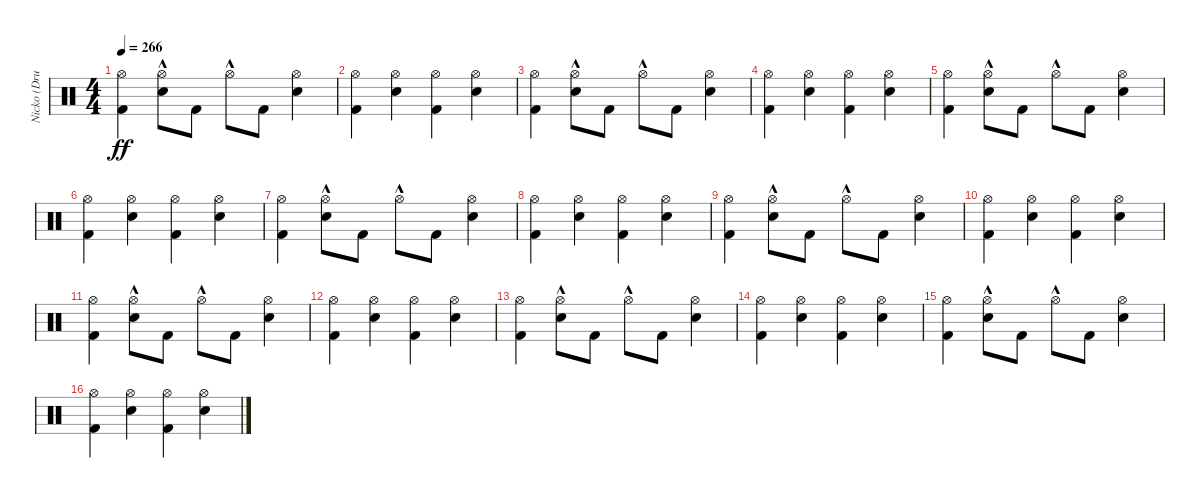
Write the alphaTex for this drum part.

\track ("Nicko (Drums)" "Nicko (Dru") {instrument percussion}
\staff {score}
\articulation defaults
\ts (4 4)
\tempo 266
\clef neutral
\ks c
("Kick (hit) 2" "Hi-Hat (open)").4{dy ff} ("Snare (hit) 2" "Hi-Hat (open)"{hac}).8 "Kick (hit) 2".8 "Hi-Hat (open)"{hac}.8 "Kick (hit) 2".8 ("Snare (hit) 2" "Hi-Hat (open)").4 |
("Kick (hit) 2" "Hi-Hat (open)").4 ("Snare (hit) 2" "Hi-Hat (open)").4 ("Kick (hit) 2" "Hi-Hat (open)").4 ("Snare (hit) 2" "Hi-Hat (open)").4 |
("Kick (hit) 2" "Hi-Hat (open)").4 ("Snare (hit) 2" "Hi-Hat (open)"{hac}).8 "Kick (hit) 2".8 "Hi-Hat (open)"{hac}.8 "Kick (hit) 2".8 ("Snare (hit) 2" "Hi-Hat (open)").4 |
("Kick (hit) 2" "Hi-Hat (open)").4 ("Snare (hit) 2" "Hi-Hat (open)").4 ("Kick (hit) 2" "Hi-Hat (open)").4 ("Snare (hit) 2" "Hi-Hat (open)").4 |
("Kick (hit) 2" "Hi-Hat (open)").4 ("Snare (hit) 2" "Hi-Hat (open)"{hac}).8 "Kick (hit) 2".8 "Hi-Hat (open)"{hac}.8 "Kick (hit) 2".8 ("Snare (hit) 2" "Hi-Hat (open)").4 |
("Kick (hit) 2" "Hi-Hat (open)").4 ("Snare (hit) 2" "Hi-Hat (open)").4 ("Kick (hit) 2" "Hi-Hat (open)").4 ("Snare (hit) 2" "Hi-Hat (open)").4 |
("Kick (hit) 2" "Hi-Hat (open)").4 ("Snare (hit) 2" "Hi-Hat (open)"{hac}).8 "Kick (hit) 2".8 "Hi-Hat (open)"{hac}.8 "Kick (hit) 2".8 ("Snare (hit) 2" "Hi-Hat (open)").4 |
("Kick (hit) 2" "Hi-Hat (open)").4 ("Snare (hit) 2" "Hi-Hat (open)").4 ("Kick (hit) 2" "Hi-Hat (open)").4 ("Snare (hit) 2" "Hi-Hat (open)").4 |
("Kick (hit) 2" "Hi-Hat (open)").4 ("Snare (hit) 2" "Hi-Hat (open)"{hac}).8 "Kick (hit) 2".8 "Hi-Hat (open)"{hac}.8 "Kick (hit) 2".8 ("Snare (hit) 2" "Hi-Hat (open)").4 |
("Kick (hit) 2" "Hi-Hat (open)").4 ("Snare (hit) 2" "Hi-Hat (open)").4 ("Kick (hit) 2" "Hi-Hat (open)").4 ("Snare (hit) 2" "Hi-Hat (open)").4 |
("Kick (hit) 2" "Hi-Hat (open)").4 ("Snare (hit) 2" "Hi-Hat (open)"{hac}).8 "Kick (hit) 2".8 "Hi-Hat (open)"{hac}.8 "Kick (hit) 2".8 ("Snare (hit) 2" "Hi-Hat (open)").4 |
("Kick (hit) 2" "Hi-Hat (open)").4 ("Snare (hit) 2" "Hi-Hat (open)").4 ("Kick (hit) 2" "Hi-Hat (open)").4 ("Snare (hit) 2" "Hi-Hat (open)").4 |
("Kick (hit) 2" "Hi-Hat (open)").4 ("Snare (hit) 2" "Hi-Hat (open)"{hac}).8 "Kick (hit) 2".8 "Hi-Hat (open)"{hac}.8 "Kick (hit) 2".8 ("Snare (hit) 2" "Hi-Hat (open)").4 |
("Kick (hit) 2" "Hi-Hat (open)").4 ("Snare (hit) 2" "Hi-Hat (open)").4 ("Kick (hit) 2" "Hi-Hat (open)").4 ("Snare (hit) 2" "Hi-Hat (open)").4 |
("Kick (hit) 2" "Hi-Hat (open)").4 ("Snare (hit) 2" "Hi-Hat (open)"{hac}).8 "Kick (hit) 2".8 "Hi-Hat (open)"{hac}.8 "Kick (hit) 2".8 ("Snare (hit) 2" "Hi-Hat (open)").4 |
("Kick (hit) 2" "Hi-Hat (open)").4 ("Snare (hit) 2" "Hi-Hat (open)").4 ("Kick (hit) 2" "Hi-Hat (open)").4 ("Snare (hit) 2" "Hi-Hat (open)").4
